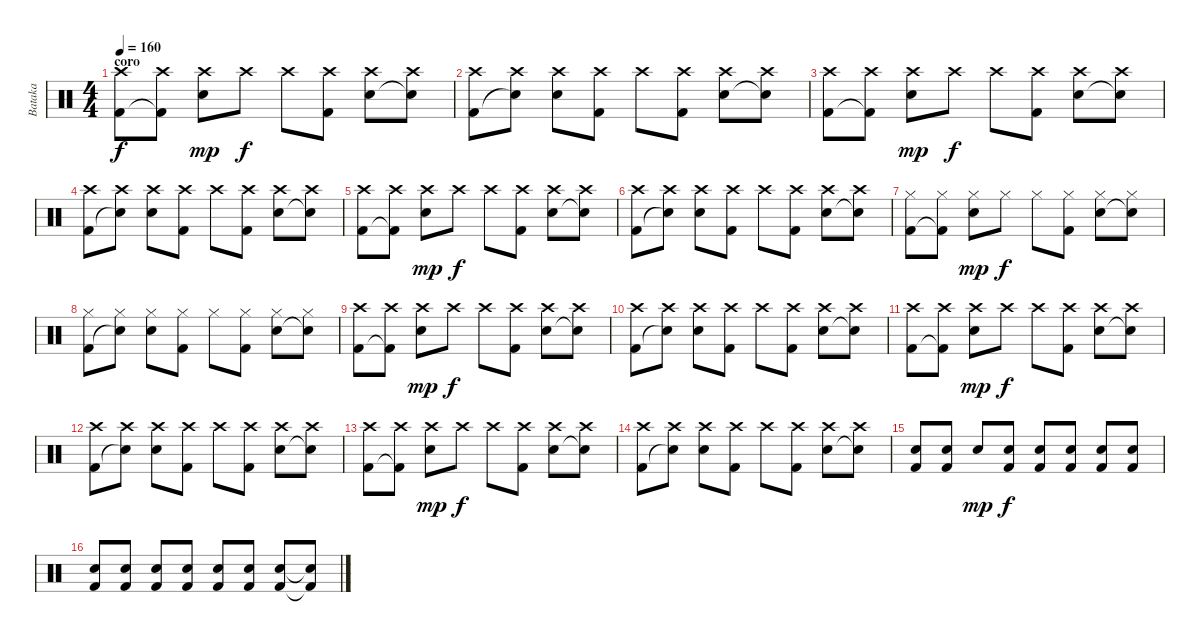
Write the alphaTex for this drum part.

\track ("Bataka" "Bataka") {instrument percussion}
\staff {score}
\articulation defaults
\ts (4 4)
\section ("" "coro")
\tempo 160
\clef neutral
\ks c
("Crash high (hit)" "Kick (hit) 2").8{dy f} ("Crash high (hit)" "Kick (hit) 2"{t}).8 ("Crash high (hit)" "Electric Snare (hit)").8{dy mp} "Crash high (hit)".8{dy f} "Crash high (hit)".8 ("Crash high (hit)" "Kick (hit) 2").8 ("Crash high (hit)" "Electric Snare (hit)").8 ("Crash high (hit)" "Snare (hit)"{t}).8 |
("Crash high (hit)" "Kick (hit) 2").8 ("Crash high (hit)" "Snare (hit)"{t}).8 ("Crash high (hit)" "Electric Snare (hit)").8 ("Crash high (hit)" "Kick (hit) 2").8 "Crash high (hit)".8 ("Crash high (hit)" "Kick (hit) 2").8 ("Crash high (hit)" "Electric Snare (hit)").8 ("Crash high (hit)" "Snare (hit)"{t}).8 |
("Crash high (hit)" "Kick (hit) 2").8 ("Crash high (hit)" "Kick (hit) 2"{t}).8 ("Crash high (hit)" "Electric Snare (hit)").8{dy mp} "Crash high (hit)".8{dy f} "Crash high (hit)".8 ("Crash high (hit)" "Kick (hit) 2").8 ("Crash high (hit)" "Electric Snare (hit)").8 ("Crash high (hit)" "Snare (hit)"{t}).8 |
("Crash high (hit)" "Kick (hit) 2").8 ("Crash high (hit)" "Snare (hit)"{t}).8 ("Crash high (hit)" "Electric Snare (hit)").8 ("Crash high (hit)" "Kick (hit) 2").8 "Crash high (hit)".8 ("Crash high (hit)" "Kick (hit) 2").8 ("Crash high (hit)" "Electric Snare (hit)").8 ("Crash high (hit)" "Snare (hit)"{t}).8 |
("Crash high (hit)" "Kick (hit) 2").8 ("Crash high (hit)" "Kick (hit) 2"{t}).8 ("Crash high (hit)" "Electric Snare (hit)").8{dy mp} "Crash high (hit)".8{dy f} "Crash high (hit)".8 ("Crash high (hit)" "Kick (hit) 2").8 ("Crash high (hit)" "Electric Snare (hit)").8 ("Crash high (hit)" "Snare (hit)"{t}).8 |
("Crash high (hit)" "Kick (hit) 2").8 ("Crash high (hit)" "Snare (hit)"{t}).8 ("Crash high (hit)" "Electric Snare (hit)").8 ("Crash high (hit)" "Kick (hit) 2").8 "Crash high (hit)".8 ("Crash high (hit)" "Kick (hit) 2").8 ("Crash high (hit)" "Electric Snare (hit)").8 ("Crash high (hit)" "Snare (hit)"{t}).8 |
("Hi-Hat (closed)" "Kick (hit) 2").8 ("Hi-Hat (closed)" "Kick (hit) 2"{t}).8 ("Hi-Hat (closed)" "Electric Snare (hit)").8{dy mp} "Hi-Hat (closed)".8{dy f} "Hi-Hat (closed)".8 ("Hi-Hat (closed)" "Kick (hit) 2").8 ("Hi-Hat (closed)" "Electric Snare (hit)").8 ("Hi-Hat (closed)" "Snare (hit)"{t}).8 |
("Hi-Hat (closed)" "Kick (hit) 2").8 ("Hi-Hat (closed)" "Snare (hit)"{t}).8 ("Hi-Hat (closed)" "Electric Snare (hit)").8 ("Hi-Hat (closed)" "Kick (hit) 2").8 "Hi-Hat (closed)".8 ("Hi-Hat (closed)" "Kick (hit) 2").8 ("Hi-Hat (closed)" "Electric Snare (hit)").8 ("Hi-Hat (closed)" "Snare (hit)"{t}).8 |
("Crash high (hit)" "Kick (hit) 2").8 ("Crash high (hit)" "Kick (hit) 2"{t}).8 ("Crash high (hit)" "Electric Snare (hit)").8{dy mp} "Crash high (hit)".8{dy f} "Crash high (hit)".8 ("Crash high (hit)" "Kick (hit) 2").8 ("Crash high (hit)" "Electric Snare (hit)").8 ("Crash high (hit)" "Snare (hit)"{t}).8 |
("Crash high (hit)" "Kick (hit) 2").8 ("Crash high (hit)" "Snare (hit)"{t}).8 ("Crash high (hit)" "Electric Snare (hit)").8 ("Crash high (hit)" "Kick (hit) 2").8 "Crash high (hit)".8 ("Crash high (hit)" "Kick (hit) 2").8 ("Crash high (hit)" "Electric Snare (hit)").8 ("Crash high (hit)" "Snare (hit)"{t}).8 |
("Crash high (hit)" "Kick (hit) 2").8 ("Crash high (hit)" "Kick (hit) 2"{t}).8 ("Crash high (hit)" "Electric Snare (hit)").8{dy mp} "Crash high (hit)".8{dy f} "Crash high (hit)".8 ("Crash high (hit)" "Kick (hit) 2").8 ("Crash high (hit)" "Electric Snare (hit)").8 ("Crash high (hit)" "Snare (hit)"{t}).8 |
("Crash high (hit)" "Kick (hit) 2").8 ("Crash high (hit)" "Snare (hit)"{t}).8 ("Crash high (hit)" "Electric Snare (hit)").8 ("Crash high (hit)" "Kick (hit) 2").8 "Crash high (hit)".8 ("Crash high (hit)" "Kick (hit) 2").8 ("Crash high (hit)" "Electric Snare (hit)").8 ("Crash high (hit)" "Snare (hit)"{t}).8 |
("Crash high (hit)" "Kick (hit) 2").8 ("Crash high (hit)" "Kick (hit) 2"{t}).8 ("Crash high (hit)" "Electric Snare (hit)").8{dy mp} "Crash high (hit)".8{dy f} "Crash high (hit)".8 ("Crash high (hit)" "Kick (hit) 2").8 ("Crash high (hit)" "Electric Snare (hit)").8 ("Crash high (hit)" "Snare (hit)"{t}).8 |
("Crash high (hit)" "Kick (hit) 2").8 ("Crash high (hit)" "Snare (hit)"{t}).8 ("Crash high (hit)" "Electric Snare (hit)").8 ("Crash high (hit)" "Kick (hit) 2").8 "Crash high (hit)".8 ("Crash high (hit)" "Kick (hit) 2").8 ("Crash high (hit)" "Electric Snare (hit)").8 ("Crash high (hit)" "Snare (hit)"{t}).8 |
("Electric Snare (hit)" "Kick (hit) 2").8 ("Electric Snare (hit)" "Kick (hit) 2").8 "Electric Snare (hit)".8{dy mp} ("Electric Snare (hit)" "Kick (hit) 2").8{dy f} ("Electric Snare (hit)" "Kick (hit) 2").8 ("Electric Snare (hit)" "Kick (hit) 2").8 ("Electric Snare (hit)" "Kick (hit) 2").8 ("Electric Snare (hit)" "Kick (hit) 2").8 |
("Electric Snare (hit)" "Kick (hit) 2").8 ("Electric Snare (hit)" "Kick (hit) 2").8 ("Electric Snare (hit)" "Kick (hit) 2").8 ("Electric Snare (hit)" "Kick (hit) 2").8 ("Electric Snare (hit)" "Kick (hit) 2").8 ("Electric Snare (hit)" "Kick (hit) 2").8 ("Electric Snare (hit)" "Kick (hit) 2").8 ("Electric Snare (hit)"{t} "Kick (hit) 2"{t}).8
